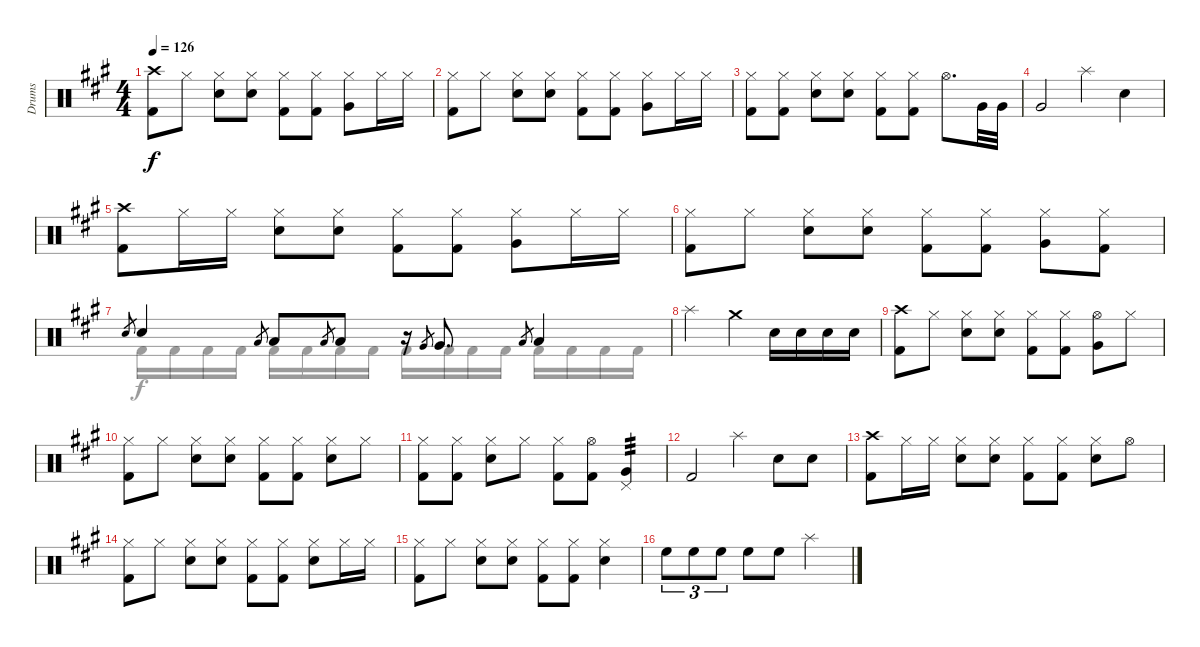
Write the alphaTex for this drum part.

\track ("Drums" "Drums") {instrument percussion}
\staff {score}
\articulation defaults
\voice
\ts (4 4)
\tempo 126
\clef neutral
\ks a
("Crash high (hit)" "Kick (hit) 2").8{dy f} "Hi-Hat (closed)".8 ("Hi-Hat (closed)" "Snare (hit) 2").8 ("Hi-Hat (closed)" "Snare (hit) 2").8 ("Hi-Hat (closed)" "Kick (hit) 2").8 ("Hi-Hat (closed)" "Kick (hit) 2").8 ("Hi-Hat (closed)" "Very Low Tom (hit)").8 "Hi-Hat (closed)".16 "Hi-Hat (closed)".16 |
("Hi-Hat (closed)" "Kick (hit) 2").8 "Hi-Hat (closed)".8 ("Hi-Hat (closed)" "Snare (hit) 2").8 ("Hi-Hat (closed)" "Snare (hit) 2").8 ("Hi-Hat (closed)" "Kick (hit) 2").8 ("Hi-Hat (closed)" "Kick (hit) 2").8 ("Hi-Hat (closed)" "Very Low Tom (hit)").8 "Hi-Hat (closed)".16 "Hi-Hat (closed)".16 |
("Hi-Hat (closed)" "Kick (hit) 2").8 ("Hi-Hat (closed)" "Kick (hit) 2").8 ("Hi-Hat (closed)" "Snare (hit) 2").8 ("Hi-Hat (closed)" "Snare (hit) 2").8 ("Hi-Hat (closed)" "Kick (hit) 2").8 ("Hi-Hat (closed)" "Kick (hit) 2").8 "Hi-Hat (open)".8{d} "Very Low Tom (hit)".32 "Very Low Tom (hit)".32 |
"Very Low Tom (hit)".2 "Splash (hit)".4 "Snare (hit) 2".4 |
("Crash high (hit)" "Kick (hit) 2").8 "Hi-Hat (closed)".16 "Hi-Hat (closed)".16 ("Hi-Hat (closed)" "Snare (hit) 2").8 ("Hi-Hat (closed)" "Snare (hit) 2").8 ("Hi-Hat (closed)" "Kick (hit) 2").8 ("Hi-Hat (closed)" "Kick (hit) 2").8 ("Hi-Hat (closed)" "Very Low Tom (hit)").8 "Hi-Hat (closed)".16 "Hi-Hat (closed)".16 |
("Hi-Hat (closed)" "Kick (hit) 2").8 "Hi-Hat (closed)".8 ("Hi-Hat (closed)" "Snare (hit) 2").8 ("Hi-Hat (closed)" "Snare (hit) 2").8 ("Hi-Hat (closed)" "Kick (hit) 2").8 ("Hi-Hat (closed)" "Kick (hit) 2").8 ("Hi-Hat (closed)" "Very Low Tom (hit)").8 ("Hi-Hat (closed)" "Kick (hit) 2").8 |
"Snare (hit) 2".8{gr} "Snare (hit) 2".4 "Low Tom (hit)".8{gr} "Low Tom (hit)".8 "Low Tom (hit)".8{gr} "Low Tom (hit)".8 r.16 "Very Low Tom (hit)".8{gr} "Very Low Tom (hit)".8{d} "Low Floor Tom (hit)".8{gr} "Low Floor Tom (hit)".4 |
"Splash (hit)".2 "Crash medium (hit)".4 "Snare (hit) 2".16 "Snare (hit) 2".16 "Snare (hit) 2".16 "Snare (hit) 2".16 |
("Crash high (hit)" "Kick (hit) 2").8 "Hi-Hat (closed)".8 ("Hi-Hat (closed)" "Snare (hit) 2").8 ("Hi-Hat (closed)" "Snare (hit) 2").8 ("Hi-Hat (closed)" "Kick (hit) 2").8 ("Hi-Hat (closed)" "Kick (hit) 2").8 ("Hi-Hat (open)" "Very Low Tom (hit)").8 "Hi-Hat (closed)".8 |
("Hi-Hat (closed)" "Kick (hit) 2").8 "Hi-Hat (closed)".8 ("Hi-Hat (closed)" "Snare (hit) 2").8 ("Hi-Hat (closed)" "Snare (hit) 2").8 ("Hi-Hat (closed)" "Kick (hit) 2").8 ("Hi-Hat (closed)" "Kick (hit) 2").8 ("Hi-Hat (closed)" "Snare (hit) 2").8 "Hi-Hat (closed)".8 |
("Hi-Hat (closed)" "Kick (hit) 2").8 ("Hi-Hat (closed)" "Kick (hit) 2").8 ("Hi-Hat (closed)" "Snare (hit) 2").8 "Hi-Hat (closed)".8 ("Hi-Hat (closed)" "Kick (hit) 2").8 ("Hi-Hat (open)" "Kick (hit) 2").8 ("Pedal Hi-Hat (hit)" "Very Low Tom (hit)").4{tp 3} |
"Kick (hit) 2".2 "Splash (hit)".4 "Snare (hit) 2".8 "Snare (hit) 2".8 |
("Crash high (hit)" "Kick (hit) 2").8 "Hi-Hat (closed)".16 "Hi-Hat (closed)".16 ("Hi-Hat (closed)" "Snare (hit) 2").8 ("Hi-Hat (closed)" "Snare (hit) 2").8 ("Hi-Hat (closed)" "Kick (hit) 2").8 ("Hi-Hat (closed)" "Kick (hit) 2").8 ("Hi-Hat (closed)" "Snare (hit) 2").8 "Hi-Hat (open)".8 |
("Hi-Hat (closed)" "Kick (hit) 2").8 "Hi-Hat (closed)".8 ("Hi-Hat (closed)" "Snare (hit) 2").8 ("Hi-Hat (closed)" "Snare (hit) 2").8 ("Hi-Hat (closed)" "Kick (hit) 2").8 ("Hi-Hat (closed)" "Kick (hit) 2").8 ("Hi-Hat (closed)" "Snare (hit) 2").8 "Hi-Hat (closed)".16 "Hi-Hat (closed)".16 |
("Hi-Hat (closed)" "Kick (hit) 2").8 "Hi-Hat (closed)".8 ("Hi-Hat (closed)" "Snare (hit) 2").8 ("Hi-Hat (closed)" "Snare (hit) 2").8 ("Hi-Hat (closed)" "Kick (hit) 2").8 ("Hi-Hat (closed)" "Kick (hit) 2").8 ("Hi-Hat (closed)" "Snare (hit) 2").4 |
"High Floor Tom (hit)".8{tu (3 2)} "High Floor Tom (hit)".8{tu (3 2)} "High Floor Tom (hit)".8{tu (3 2)} "High Floor Tom (hit)".8 "High Floor Tom (hit)".8 "Splash (hit)".2
\voice
\clef neutral
\ottava regular
\simile none
\ks a
|
|
|
|
|
|
"Kick (hit) 2".16 "Kick (hit) 2".16 "Kick (hit) 2".16 "Kick (hit) 2".16 "Kick (hit) 2".16 "Kick (hit) 2".16 "Kick (hit) 2".16 "Kick (hit) 2".16 "Kick (hit) 2".16 "Kick (hit) 2".16 "Kick (hit) 2".16 "Kick (hit) 2".16 "Kick (hit) 2".16 "Kick (hit) 2".16 "Kick (hit) 2".16 "Kick (hit) 2".16 |
|
|
|
|
|
|
|
|
